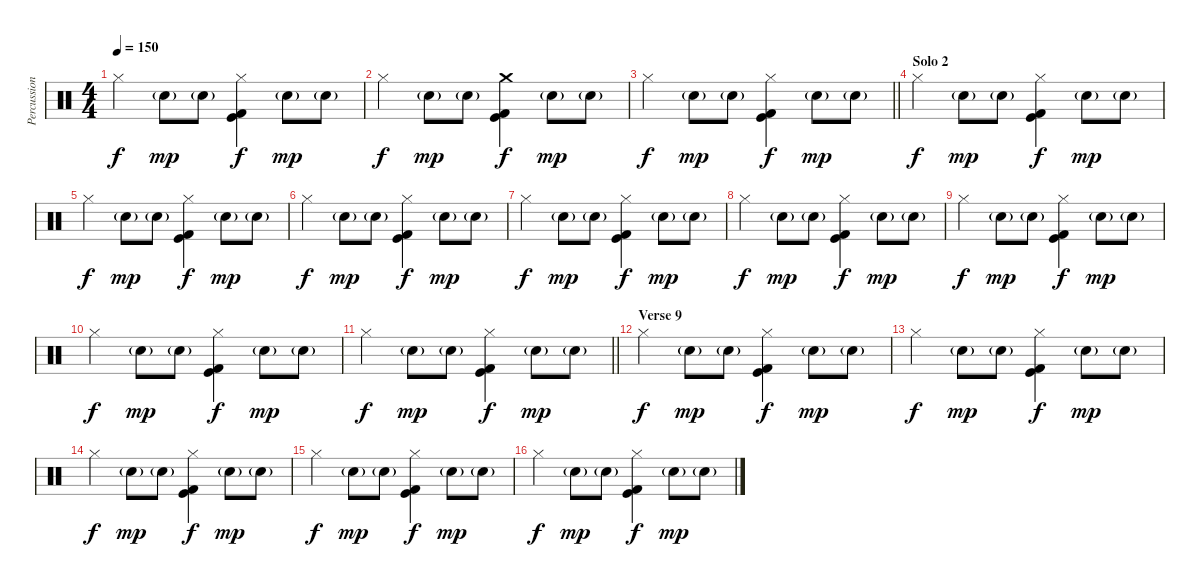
\track ("Percussion" "Percussion") {instrument percussion}
\staff {score}
\articulation defaults
\ts (4 4)
\tempo 150
\clef neutral
\ks c "Hi-Hat (closed)".4{dy f} "Hand Clap (hit)"{g}.8{dy mp} "Hand Clap (hit)"{g}.8
("Hi-Hat (closed)" "Kick (hit)" "Kick (hit) 2").4{dy f} "Hand Clap (hit)"{g}.8{dy mp} "Hand Clap (hit)"{g}.8 |
"Hi-Hat (closed)".4{dy f} "Hand Clap (hit)"{g}.8{dy mp} "Hand Clap (hit)"{g}.8 ("Crash medium (hit)" "Kick (hit)" "Kick (hit) 2").4{dy f} "Hand Clap (hit)"{g}.8{dy mp} "Hand Clap (hit)"{g}.8 |
\barLineRight lightlight "Hi-Hat (closed)".4{dy f} "Hand Clap (hit)"{g}.8{dy mp} "Hand Clap (hit)"{g}.8
("Hi-Hat (closed)" "Kick (hit)" "Kick (hit) 2").4{dy f} "Hand Clap (hit)"{g}.8{dy mp} "Hand Clap (hit)"{g}.8 |
\section ("" "Solo 2")
"Hi-Hat (closed)".4{dy f} "Hand Clap (hit)"{g}.8{dy mp} "Hand Clap (hit)"{g}.8 ("Hi-Hat (closed)" "Kick (hit)" "Kick (hit) 2").4{dy f} "Hand Clap (hit)"{g}.8{dy mp} "Hand Clap (hit)"{g}.8 |
"Hi-Hat (closed)".4{dy f} "Hand Clap (hit)"{g}.8{dy mp} "Hand Clap (hit)"{g}.8 ("Hi-Hat (closed)" "Kick (hit)" "Kick (hit) 2").4{dy f} "Hand Clap (hit)"{g}.8{dy mp} "Hand Clap (hit)"{g}.8 |
"Hi-Hat (closed)".4{dy f} "Hand Clap (hit)"{g}.8{dy mp} "Hand Clap (hit)"{g}.8 ("Hi-Hat (closed)" "Kick (hit)" "Kick (hit) 2").4{dy f} "Hand Clap (hit)"{g}.8{dy mp} "Hand Clap (hit)"{g}.8 |
"Hi-Hat (closed)".4{dy f} "Hand Clap (hit)"{g}.8{dy mp} "Hand Clap (hit)"{g}.8 ("Hi-Hat (closed)" "Kick (hit)" "Kick (hit) 2").4{dy f} "Hand Clap (hit)"{g}.8{dy mp} "Hand Clap (hit)"{g}.8 |
"Hi-Hat (closed)".4{dy f} "Hand Clap (hit)"{g}.8{dy mp} "Hand Clap (hit)"{g}.8 ("Hi-Hat (closed)" "Kick (hit)" "Kick (hit) 2").4{dy f} "Hand Clap (hit)"{g}.8{dy mp} "Hand Clap (hit)"{g}.8 |
"Hi-Hat (closed)".4{dy f} "Hand Clap (hit)"{g}.8{dy mp} "Hand Clap (hit)"{g}.8 ("Hi-Hat (closed)" "Kick (hit)" "Kick (hit) 2").4{dy f} "Hand Clap (hit)"{g}.8{dy mp} "Hand Clap (hit)"{g}.8 |
"Hi-Hat (closed)".4{dy f} "Hand Clap (hit)"{g}.8{dy mp} "Hand Clap (hit)"{g}.8 ("Hi-Hat (closed)" "Kick (hit)" "Kick (hit) 2").4{dy f} "Hand Clap (hit)"{g}.8{dy mp} "Hand Clap (hit)"{g}.8 |
\barLineRight lightlight "Hi-Hat (closed)".4{dy f} "Hand Clap (hit)"{g}.8{dy mp} "Hand Clap (hit)"{g}.8
("Hi-Hat (closed)" "Kick (hit)" "Kick (hit) 2").4{dy f} "Hand Clap (hit)"{g}.8{dy mp} "Hand Clap (hit)"{g}.8 |
\section ("" "Verse 9")
"Hi-Hat (closed)".4{dy f} "Hand Clap (hit)"{g}.8{dy mp} "Hand Clap (hit)"{g}.8 ("Hi-Hat (closed)" "Kick (hit)" "Kick (hit) 2").4{dy f} "Hand Clap (hit)"{g}.8{dy mp} "Hand Clap (hit)"{g}.8 |
"Hi-Hat (closed)".4{dy f} "Hand Clap (hit)"{g}.8{dy mp} "Hand Clap (hit)"{g}.8 ("Hi-Hat (closed)" "Kick (hit)" "Kick (hit) 2").4{dy f} "Hand Clap (hit)"{g}.8{dy mp} "Hand Clap (hit)"{g}.8 |
"Hi-Hat (closed)".4{dy f} "Hand Clap (hit)"{g}.8{dy mp} "Hand Clap (hit)"{g}.8 ("Hi-Hat (closed)" "Kick (hit)" "Kick (hit) 2").4{dy f} "Hand Clap (hit)"{g}.8{dy mp} "Hand Clap (hit)"{g}.8 |
"Hi-Hat (closed)".4{dy f} "Hand Clap (hit)"{g}.8{dy mp} "Hand Clap (hit)"{g}.8 ("Hi-Hat (closed)" "Kick (hit)" "Kick (hit) 2").4{dy f} "Hand Clap (hit)"{g}.8{dy mp} "Hand Clap (hit)"{g}.8 |
"Hi-Hat (closed)".4{dy f} "Hand Clap (hit)"{g}.8{dy mp} "Hand Clap (hit)"{g}.8 ("Hi-Hat (closed)" "Kick (hit)" "Kick (hit) 2").4{dy f} "Hand Clap (hit)"{g}.8{dy mp} "Hand Clap (hit)"{g}.8
